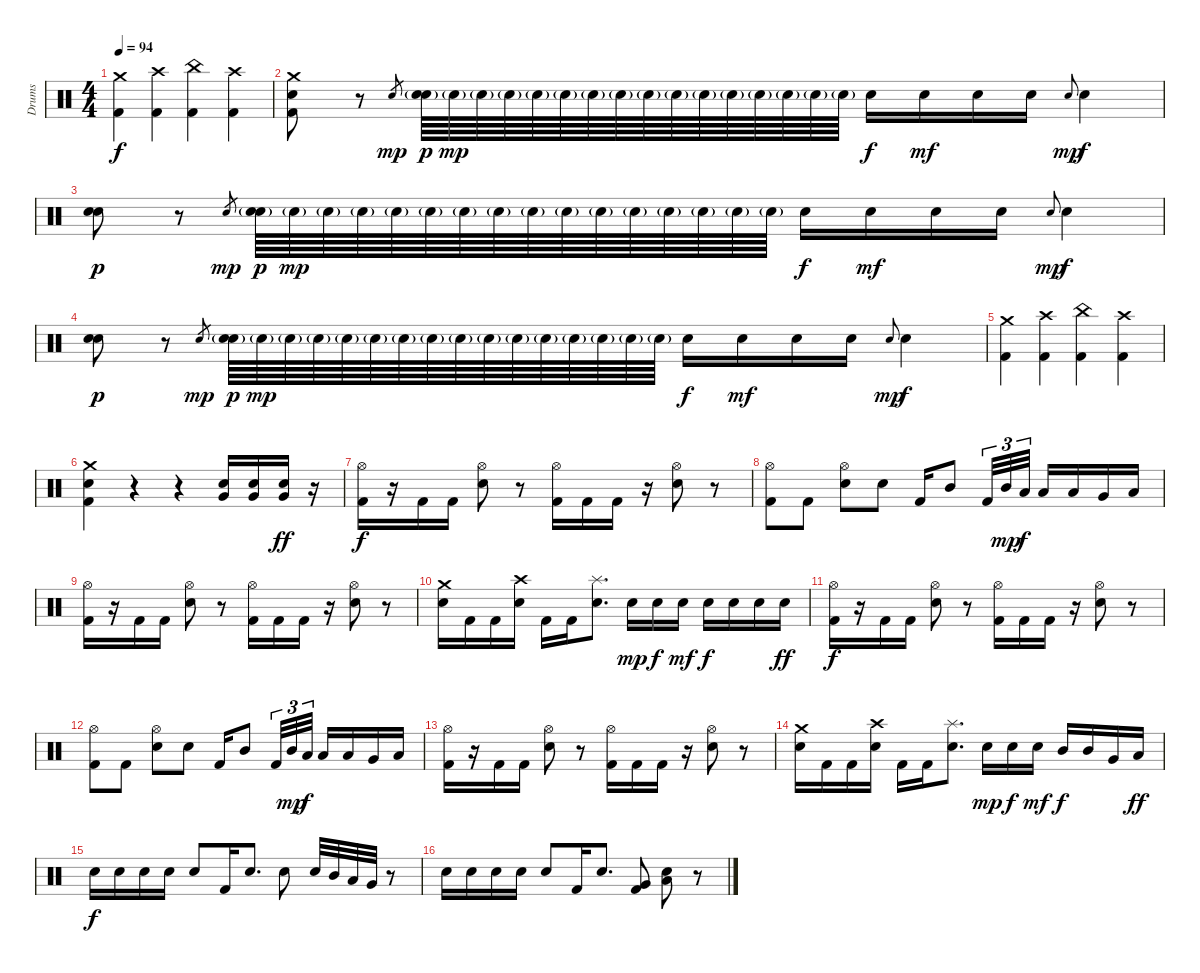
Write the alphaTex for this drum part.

\track ("Drums" "Drums") {instrument percussion}
\staff {score}
\articulation defaults
\ts (4 4)
\tempo 94
\clef neutral
\ks c
("Crash medium (hit)" "Kick (hit) 2").4{dy f} ("Crash high (hit)" "Kick (hit) 2").4 ("China (hit)" "Kick (hit) 2").4 ("Crash high (hit)" "Kick (hit) 2").4 |
("Crash medium (hit)" "Electric Snare (hit)" "Kick (hit) 2").8 r.8 "Electric Snare (hit)".8{gr dy mp} ("Electric Snare (hit)"{g} "Snare (hit) 2").64{dy p} "Electric Snare (hit)"{g}.64{dy mp} "Electric Snare (hit)"{g}.64 "Electric Snare (hit)"{g}.64 "Electric Snare (hit)"{g}.64 "Electric Snare (hit)"{g}.64 "Electric Snare (hit)"{g}.64 "Electric Snare (hit)"{g}.64 "Electric Snare (hit)"{g}.64 "Electric Snare (hit)"{g}.64 "Electric Snare (hit)"{g}.64 "Electric Snare (hit)"{g}.64 "Electric Snare (hit)"{g}.64 "Electric Snare (hit)"{g}.64 "Electric Snare (hit)"{g}.64 "Electric Snare (hit)"{g}.64 "Electric Snare (hit)".16{dy f} "Electric Snare (hit)".16{dy mf} "Electric Snare (hit)".16 "Electric Snare (hit)".16 "Electric Snare (hit)".8{gr onbeat dy mp} "Electric Snare (hit)".4{dy f} |
("Electric Snare (hit)" "Snare (hit) 2").8{dy p} r.8 "Electric Snare (hit)".8{gr dy mp} ("Electric Snare (hit)"{g} "Snare (hit) 2").64{dy p} "Electric Snare (hit)"{g}.64{dy mp} "Electric Snare (hit)"{g}.64 "Electric Snare (hit)"{g}.64 "Electric Snare (hit)"{g}.64 "Electric Snare (hit)"{g}.64 "Electric Snare (hit)"{g}.64 "Electric Snare (hit)"{g}.64 "Electric Snare (hit)"{g}.64 "Electric Snare (hit)"{g}.64 "Electric Snare (hit)"{g}.64 "Electric Snare (hit)"{g}.64 "Electric Snare (hit)"{g}.64 "Electric Snare (hit)"{g}.64 "Electric Snare (hit)"{g}.64 "Electric Snare (hit)"{g}.64 "Electric Snare (hit)".16{dy f} "Electric Snare (hit)".16{dy mf} "Electric Snare (hit)".16 "Electric Snare (hit)".16 "Electric Snare (hit)".8{gr onbeat dy mp} "Electric Snare (hit)".4{dy f} |
("Electric Snare (hit)" "Snare (hit) 2").8{dy p} r.8 "Electric Snare (hit)".8{gr dy mp} ("Electric Snare (hit)"{g} "Snare (hit) 2").64{dy p} "Electric Snare (hit)"{g}.64{dy mp} "Electric Snare (hit)"{g}.64 "Electric Snare (hit)"{g}.64 "Electric Snare (hit)"{g}.64 "Electric Snare (hit)"{g}.64 "Electric Snare (hit)"{g}.64 "Electric Snare (hit)"{g}.64 "Electric Snare (hit)"{g}.64 "Electric Snare (hit)"{g}.64 "Electric Snare (hit)"{g}.64 "Electric Snare (hit)"{g}.64 "Electric Snare (hit)"{g}.64 "Electric Snare (hit)"{g}.64 "Electric Snare (hit)"{g}.64 "Electric Snare (hit)"{g}.64 "Electric Snare (hit)".16{dy f} "Electric Snare (hit)".16{dy mf} "Electric Snare (hit)".16 "Electric Snare (hit)".16 "Electric Snare (hit)".8{gr onbeat dy mp} "Electric Snare (hit)".4{dy f} |
("Crash medium (hit)" "Kick (hit) 2").4 ("Crash high (hit)" "Kick (hit) 2").4 ("China (hit)" "Kick (hit) 2").4 ("Crash high (hit)" "Kick (hit) 2").4 |
("Crash medium (hit)" "Electric Snare (hit)" "Kick (hit) 2").4 r.4 r.4 ("Very Low Tom (hit)" "Electric Snare (hit)").16 ("Very Low Tom (hit)" "Electric Snare (hit)").16 ("Very Low Tom (hit)" "Electric Snare (hit)").16{dy ff} r.16 |
("Hi-Hat (open)" "Kick (hit) 2").16{dy f} r.16 "Kick (hit) 2".16 "Kick (hit) 2".16 ("Hi-Hat (open)" "Electric Snare (hit)").8 r.8 ("Hi-Hat (open)" "Kick (hit) 2").16 "Kick (hit) 2".16 "Kick (hit) 2".16 r.16 ("Hi-Hat (open)" "Electric Snare (hit)").8 r.8 |
("Hi-Hat (open)" "Kick (hit) 2").8 "Kick (hit) 2".8 ("Hi-Hat (open)" "Electric Snare (hit)").8 "Electric Snare (hit)".8 "Kick (hit) 2".16 "Mid Tom (hit)".8 "Kick (hit) 2".32{tu (3 2)} "Mid Tom (hit)".32{tu (3 2) dy mp} "Low Tom (hit)".32{tu (3 2) dy f} "Low Tom (hit)".16 "Low Tom (hit)".16 "Very Low Tom (hit)".16 "Low Floor Tom (hit)".16 |
("Hi-Hat (open)" "Kick (hit) 2").16 r.16 "Kick (hit) 2".16 "Kick (hit) 2".16 ("Hi-Hat (open)" "Electric Snare (hit)").8 r.8 ("Hi-Hat (open)" "Kick (hit) 2").16 "Kick (hit) 2".16 "Kick (hit) 2".16 r.16 ("Hi-Hat (open)" "Electric Snare (hit)").8 r.8 |
("Crash medium (hit)" "Electric Snare (hit)").16 "Kick (hit) 2".16 "Kick (hit) 2".16 ("Crash high (hit)" "Electric Snare (hit)").16 "Kick (hit) 2".16 "Kick (hit) 2".16 ("Splash (hit)" "Electric Snare (hit)").8{d} "Electric Snare (hit)".16{dy mp} "Electric Snare (hit)".16{dy f} "Electric Snare (hit)".16{dy mf} "Electric Snare (hit)".16{dy f} "Electric Snare (hit)".16 "Electric Snare (hit)".16 "Electric Snare (hit)".16{dy ff} |
("Hi-Hat (open)" "Kick (hit) 2").16{dy f} r.16 "Kick (hit) 2".16 "Kick (hit) 2".16 ("Hi-Hat (open)" "Electric Snare (hit)").8 r.8 ("Hi-Hat (open)" "Kick (hit) 2").16 "Kick (hit) 2".16 "Kick (hit) 2".16 r.16 ("Hi-Hat (open)" "Electric Snare (hit)").8 r.8 |
("Hi-Hat (open)" "Kick (hit) 2").8 "Kick (hit) 2".8 ("Hi-Hat (open)" "Electric Snare (hit)").8 "Electric Snare (hit)".8 "Kick (hit) 2".16 "Mid Tom (hit)".8 "Kick (hit) 2".32{tu (3 2)} "Mid Tom (hit)".32{tu (3 2) dy mp} "Low Tom (hit)".32{tu (3 2) dy f} "Low Tom (hit)".16 "Low Tom (hit)".16 "Very Low Tom (hit)".16 "Low Floor Tom (hit)".16 |
("Hi-Hat (open)" "Kick (hit) 2").16 r.16 "Kick (hit) 2".16 "Kick (hit) 2".16 ("Hi-Hat (open)" "Electric Snare (hit)").8 r.8 ("Hi-Hat (open)" "Kick (hit) 2").16 "Kick (hit) 2".16 "Kick (hit) 2".16 r.16 ("Hi-Hat (open)" "Electric Snare (hit)").8 r.8 |
("Crash medium (hit)" "Electric Snare (hit)").16 "Kick (hit) 2".16 "Kick (hit) 2".16 ("Crash high (hit)" "Electric Snare (hit)").16 "Kick (hit) 2".16 "Kick (hit) 2".16 ("Splash (hit)" "Electric Snare (hit)").8{d} "Electric Snare (hit)".16{dy mp} "Electric Snare (hit)".16{dy f} "Electric Snare (hit)".16{dy mf} "Mid Tom (hit)".16{dy f} "Mid Tom (hit)".16 "Very Low Tom (hit)".16 "Low Floor Tom (hit)".16{dy ff} |
"Electric Snare (hit)".16{dy f} "Electric Snare (hit)".16 "Electric Snare (hit)".16 "Electric Snare (hit)".16 "Electric Snare (hit)".8 "Kick (hit) 2".16 "Electric Snare (hit)".8{d} "Electric Snare (hit)".8 "Electric Snare (hit)".32 "Mid Tom (hit)".32 "Low Tom (hit)".32 "Very Low Tom (hit)".32 r.8 |
"Electric Snare (hit)".16 "Electric Snare (hit)".16 "Electric Snare (hit)".16 "Electric Snare (hit)".16 "Electric Snare (hit)".8 "Kick (hit) 2".16 "Electric Snare (hit)".8{d} ("Very Low Tom (hit)" "Kick (hit) 2").8 ("Low Tom (hit)" "Electric Snare (hit)").8 r.8
